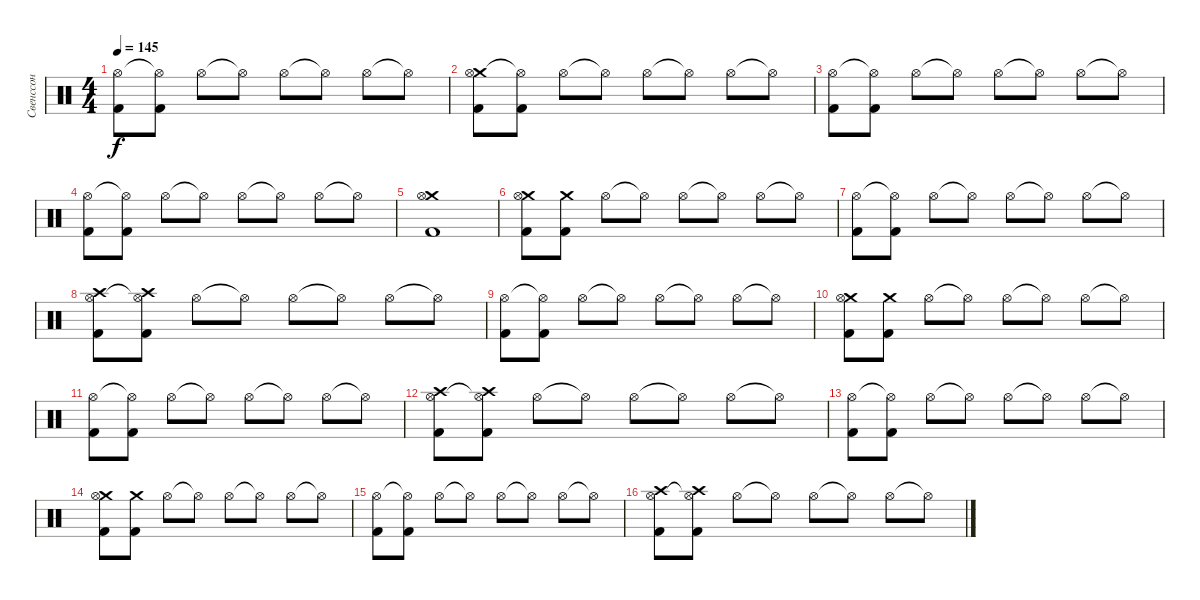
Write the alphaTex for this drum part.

\track ("Свенссон" "Свенссон") {instrument percussion}
\staff {score}
\articulation defaults
\ts (4 4)
\tempo 145
\clef neutral
\ks c
("Hi-Hat (open)" "Kick (hit) 2").8{dy f} ("Hi-Hat (open)"{t} "Kick (hit) 2").8 "Hi-Hat (open)".8 "Hi-Hat (open)"{t}.8 "Hi-Hat (open)".8 "Hi-Hat (open)"{t}.8 "Hi-Hat (open)".8 "Hi-Hat (open)"{t}.8 |
("Crash medium (hit)" "Hi-Hat (open)" "Kick (hit) 2").8 ("Hi-Hat (open)"{t} "Kick (hit) 2").8 "Hi-Hat (open)".8 "Hi-Hat (open)"{t}.8 "Hi-Hat (open)".8 "Hi-Hat (open)"{t}.8 "Hi-Hat (open)".8 "Hi-Hat (open)"{t}.8 |
("Hi-Hat (open)" "Kick (hit) 2").8 ("Hi-Hat (open)"{t} "Kick (hit) 2").8 "Hi-Hat (open)".8 "Hi-Hat (open)"{t}.8 "Hi-Hat (open)".8 "Hi-Hat (open)"{t}.8 "Hi-Hat (open)".8 "Hi-Hat (open)"{t}.8 |
("Hi-Hat (open)" "Kick (hit) 2").8 ("Hi-Hat (open)"{t} "Kick (hit) 2").8 "Hi-Hat (open)".8 "Hi-Hat (open)"{t}.8 "Hi-Hat (open)".8 "Hi-Hat (open)"{t}.8 "Hi-Hat (open)".8 "Hi-Hat (open)"{t}.8 |
("Crash medium (hit)" "Hi-Hat (open)" "Kick (hit) 2").1 |
("Crash medium (hit)" "Hi-Hat (open)" "Kick (hit) 2").8 ("Crash medium (hit)" "Kick (hit) 2").8 "Hi-Hat (open)".8 "Hi-Hat (open)"{t}.8 "Hi-Hat (open)".8 "Hi-Hat (open)"{t}.8 "Hi-Hat (open)".8 "Hi-Hat (open)"{t}.8 |
("Hi-Hat (open)" "Kick (hit) 2").8 ("Hi-Hat (open)"{t} "Kick (hit) 2").8 "Hi-Hat (open)".8 "Hi-Hat (open)"{t}.8 "Hi-Hat (open)".8 "Hi-Hat (open)"{t}.8 "Hi-Hat (open)".8 "Hi-Hat (open)"{t}.8 |
("Crash high (hit)" "Hi-Hat (open)" "Kick (hit) 2").8 ("Crash high (hit)" "Hi-Hat (open)"{t} "Kick (hit) 2").8 "Hi-Hat (open)".8 "Hi-Hat (open)"{t}.8 "Hi-Hat (open)".8 "Hi-Hat (open)"{t}.8 "Hi-Hat (open)".8 "Hi-Hat (open)"{t}.8 |
("Hi-Hat (open)" "Kick (hit) 2").8 ("Hi-Hat (open)"{t} "Kick (hit) 2").8 "Hi-Hat (open)".8 "Hi-Hat (open)"{t}.8 "Hi-Hat (open)".8 "Hi-Hat (open)"{t}.8 "Hi-Hat (open)".8 "Hi-Hat (open)"{t}.8 |
("Crash medium (hit)" "Hi-Hat (open)" "Kick (hit) 2").8 ("Crash medium (hit)" "Kick (hit) 2").8 "Hi-Hat (open)".8 "Hi-Hat (open)"{t}.8 "Hi-Hat (open)".8 "Hi-Hat (open)"{t}.8 "Hi-Hat (open)".8 "Hi-Hat (open)"{t}.8 |
("Hi-Hat (open)" "Kick (hit) 2").8 ("Hi-Hat (open)"{t} "Kick (hit) 2").8 "Hi-Hat (open)".8 "Hi-Hat (open)"{t}.8 "Hi-Hat (open)".8 "Hi-Hat (open)"{t}.8 "Hi-Hat (open)".8 "Hi-Hat (open)"{t}.8 |
("Crash high (hit)" "Hi-Hat (open)" "Kick (hit) 2").8 ("Crash high (hit)" "Hi-Hat (open)"{t} "Kick (hit) 2").8 "Hi-Hat (open)".8 "Hi-Hat (open)"{t}.8 "Hi-Hat (open)".8 "Hi-Hat (open)"{t}.8 "Hi-Hat (open)".8 "Hi-Hat (open)"{t}.8 |
("Hi-Hat (open)" "Kick (hit) 2").8 ("Hi-Hat (open)"{t} "Kick (hit) 2").8 "Hi-Hat (open)".8 "Hi-Hat (open)"{t}.8 "Hi-Hat (open)".8 "Hi-Hat (open)"{t}.8 "Hi-Hat (open)".8 "Hi-Hat (open)"{t}.8 |
("Crash medium (hit)" "Hi-Hat (open)" "Kick (hit) 2").8 ("Crash medium (hit)" "Kick (hit) 2").8 "Hi-Hat (open)".8 "Hi-Hat (open)"{t}.8 "Hi-Hat (open)".8 "Hi-Hat (open)"{t}.8 "Hi-Hat (open)".8 "Hi-Hat (open)"{t}.8 |
("Hi-Hat (open)" "Kick (hit) 2").8 ("Hi-Hat (open)"{t} "Kick (hit) 2").8 "Hi-Hat (open)".8 "Hi-Hat (open)"{t}.8 "Hi-Hat (open)".8 "Hi-Hat (open)"{t}.8 "Hi-Hat (open)".8 "Hi-Hat (open)"{t}.8 |
("Crash high (hit)" "Hi-Hat (open)" "Kick (hit) 2").8 ("Crash high (hit)" "Hi-Hat (open)"{t} "Kick (hit) 2").8 "Hi-Hat (open)".8 "Hi-Hat (open)"{t}.8 "Hi-Hat (open)".8 "Hi-Hat (open)"{t}.8 "Hi-Hat (open)".8 "Hi-Hat (open)"{t}.8
